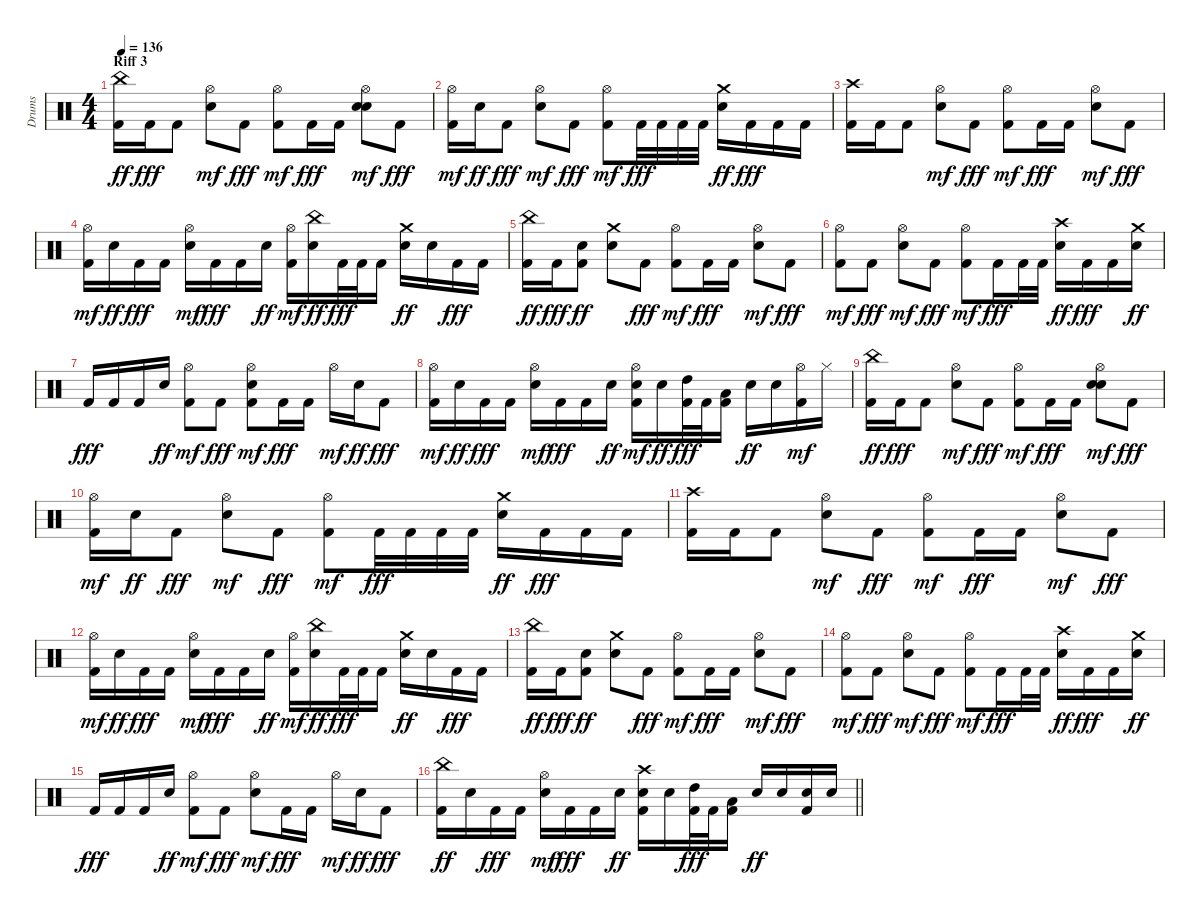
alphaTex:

\track ("Drums" "Drums") {instrument percussion}
\staff {score}
\articulation defaults
\ts (4 4)
\section ("" "Riff 3")
\tempo 136
\clef neutral
\ks c
("Kick (hit) 2" "China (hit)").16{dy ff} "Kick (hit) 2".16{dy fff} "Kick (hit) 2".8 ("Snare (hit) 2" "Hi-Hat (open)").8{dy mf} "Kick (hit) 2".8{dy fff} ("Kick (hit) 2" "Hi-Hat (open)").8{dy mf} "Kick (hit) 2".16{dy fff} "Kick (hit) 2".16 ("Snare (hit) 2" "Snare (hit) 2" "Hi-Hat (open)").8{dy mf} "Kick (hit) 2".8{dy fff} |
("Kick (hit) 2" "Hi-Hat (open)").16{dy mf} "Snare (hit) 2".16{dy ff} "Kick (hit) 2".8{dy fff} ("Snare (hit) 2" "Hi-Hat (open)").8{dy mf} "Kick (hit) 2".8{dy fff} ("Kick (hit) 2" "Hi-Hat (open)").8{dy mf} "Kick (hit) 2".32{dy fff} "Kick (hit) 2".32 "Kick (hit) 2".32 "Kick (hit) 2".32 ("Snare (hit) 2" "Crash medium (hit)").16{dy ff} "Kick (hit) 2".16{dy fff} "Kick (hit) 2".16 "Kick (hit) 2".16 |
("Kick (hit) 2" "Crash high (hit)").16 "Kick (hit) 2".16 "Kick (hit) 2".8 ("Snare (hit) 2" "Hi-Hat (open)").8{dy mf} "Kick (hit) 2".8{dy fff} ("Kick (hit) 2" "Hi-Hat (open)").8{dy mf} "Kick (hit) 2".16{dy fff} "Kick (hit) 2".16 ("Snare (hit) 2" "Hi-Hat (open)").8{dy mf} "Kick (hit) 2".8{dy fff} |
("Kick (hit) 2" "Hi-Hat (open)").16{dy mf} "Snare (hit) 2".16{dy ff} "Kick (hit) 2".16{dy fff} "Kick (hit) 2".16 ("Snare (hit) 2" "Hi-Hat (open)").16{dy mf} "Kick (hit) 2".16{dy fff} "Kick (hit) 2".16 "Snare (hit) 2".16{dy ff} ("Kick (hit) 2" "Hi-Hat (open)").16{dy mf} ("Snare (hit) 2" "China (hit)").16{dy ff} "Kick (hit) 2".32{dy fff} "Kick (hit) 2".32 "Kick (hit) 2".16 ("Snare (hit) 2" "Crash medium (hit)").16{dy ff} "Snare (hit) 2".16 "Kick (hit) 2".16{dy fff} "Kick (hit) 2".16 |
("Kick (hit) 2" "China (hit)").16{dy ff} "Kick (hit) 2".16{dy fff} ("Kick (hit) 2" "Snare (hit) 2").8{dy ff} ("Snare (hit) 2" "Crash medium (hit)").8 "Kick (hit) 2".8{dy fff} ("Kick (hit) 2" "Hi-Hat (open)").8{dy mf} "Kick (hit) 2".16{dy fff} "Kick (hit) 2".16 ("Snare (hit) 2" "Hi-Hat (open)").8{dy mf} "Kick (hit) 2".8{dy fff} |
("Kick (hit) 2" "Hi-Hat (open)").8{dy mf} "Kick (hit) 2".8{dy fff} ("Snare (hit) 2" "Hi-Hat (open)").8{dy mf} "Kick (hit) 2".8{dy fff} ("Kick (hit) 2" "Hi-Hat (open)").8{dy mf} "Kick (hit) 2".16{dy fff} "Kick (hit) 2".32 "Kick (hit) 2".32 ("Snare (hit) 2" "Crash high (hit)").16{dy ff} "Kick (hit) 2".16{dy fff} "Kick (hit) 2".16 ("Snare (hit) 2" "Crash medium (hit)").16{dy ff} |
"Kick (hit) 2".16{dy fff} "Kick (hit) 2".16 "Kick (hit) 2".16 "Snare (hit) 2".16{dy ff} ("Kick (hit) 2" "Hi-Hat (open)").8{dy mf} "Kick (hit) 2".8{dy fff} ("Kick (hit) 2" "Snare (hit) 2" "Hi-Hat (open)").8{dy mf} "Kick (hit) 2".16{dy fff} "Kick (hit) 2".16 "Hi-Hat (open)".16{dy mf} "Snare (hit) 2".16{dy ff} "Kick (hit) 2".8{dy fff} |
("Kick (hit) 2" "Hi-Hat (open)").16{dy mf} "Snare (hit) 2".16{dy ff} "Kick (hit) 2".16{dy fff} "Kick (hit) 2".16 ("Snare (hit) 2" "Hi-Hat (open)").16{dy mf} "Kick (hit) 2".16{dy fff} "Kick (hit) 2".16 "Snare (hit) 2".16{dy ff} ("Kick (hit) 2" "Snare (hit) 2" "Hi-Hat (open)").16{dy mf} "Snare (hit) 2".16{dy ff} ("Kick (hit) 2" "High Tom (hit)").32{dy fff} "Kick (hit) 2".32 ("Kick (hit) 2" "Low Tom (hit)").16 "Snare (hit) 2".16{dy ff} "Snare (hit) 2".16 ("Kick (hit) 2" "Hi-Hat (open)").16{dy mf} "Hi-Hat (closed)".16 |
("Kick (hit) 2" "China (hit)").16{dy ff} "Kick (hit) 2".16{dy fff} "Kick (hit) 2".8 ("Snare (hit) 2" "Hi-Hat (open)").8{dy mf} "Kick (hit) 2".8{dy fff} ("Kick (hit) 2" "Hi-Hat (open)").8{dy mf} "Kick (hit) 2".16{dy fff} "Kick (hit) 2".16 ("Snare (hit) 2" "Snare (hit) 2" "Hi-Hat (open)").8{dy mf} "Kick (hit) 2".8{dy fff} |
("Kick (hit) 2" "Hi-Hat (open)").16{dy mf} "Snare (hit) 2".16{dy ff} "Kick (hit) 2".8{dy fff} ("Snare (hit) 2" "Hi-Hat (open)").8{dy mf} "Kick (hit) 2".8{dy fff} ("Kick (hit) 2" "Hi-Hat (open)").8{dy mf} "Kick (hit) 2".32{dy fff} "Kick (hit) 2".32 "Kick (hit) 2".32 "Kick (hit) 2".32 ("Snare (hit) 2" "Crash medium (hit)").16{dy ff} "Kick (hit) 2".16{dy fff} "Kick (hit) 2".16 "Kick (hit) 2".16 |
("Kick (hit) 2" "Crash high (hit)").16 "Kick (hit) 2".16 "Kick (hit) 2".8 ("Snare (hit) 2" "Hi-Hat (open)").8{dy mf} "Kick (hit) 2".8{dy fff} ("Kick (hit) 2" "Hi-Hat (open)").8{dy mf} "Kick (hit) 2".16{dy fff} "Kick (hit) 2".16 ("Snare (hit) 2" "Hi-Hat (open)").8{dy mf} "Kick (hit) 2".8{dy fff} |
("Kick (hit) 2" "Hi-Hat (open)").16{dy mf} "Snare (hit) 2".16{dy ff} "Kick (hit) 2".16{dy fff} "Kick (hit) 2".16 ("Snare (hit) 2" "Hi-Hat (open)").16{dy mf} "Kick (hit) 2".16{dy fff} "Kick (hit) 2".16 "Snare (hit) 2".16{dy ff} ("Kick (hit) 2" "Hi-Hat (open)").16{dy mf} ("Snare (hit) 2" "China (hit)").16{dy ff} "Kick (hit) 2".32{dy fff} "Kick (hit) 2".32 "Kick (hit) 2".16 ("Snare (hit) 2" "Crash medium (hit)").16{dy ff} "Snare (hit) 2".16 "Kick (hit) 2".16{dy fff} "Kick (hit) 2".16 |
("Kick (hit) 2" "China (hit)").16{dy ff} "Kick (hit) 2".16{dy fff} ("Kick (hit) 2" "Snare (hit) 2").8{dy ff} ("Snare (hit) 2" "Crash medium (hit)").8 "Kick (hit) 2".8{dy fff} ("Kick (hit) 2" "Hi-Hat (open)").8{dy mf} "Kick (hit) 2".16{dy fff} "Kick (hit) 2".16 ("Snare (hit) 2" "Hi-Hat (open)").8{dy mf} "Kick (hit) 2".8{dy fff} |
("Kick (hit) 2" "Hi-Hat (open)").8{dy mf} "Kick (hit) 2".8{dy fff} ("Snare (hit) 2" "Hi-Hat (open)").8{dy mf} "Kick (hit) 2".8{dy fff} ("Kick (hit) 2" "Hi-Hat (open)").8{dy mf} "Kick (hit) 2".16{dy fff} "Kick (hit) 2".32 "Kick (hit) 2".32 ("Snare (hit) 2" "Crash high (hit)").16{dy ff} "Kick (hit) 2".16{dy fff} "Kick (hit) 2".16 ("Snare (hit) 2" "Crash medium (hit)").16{dy ff} |
"Kick (hit) 2".16{dy fff} "Kick (hit) 2".16 "Kick (hit) 2".16 "Snare (hit) 2".16{dy ff} ("Kick (hit) 2" "Hi-Hat (open)").8{dy mf} "Kick (hit) 2".8{dy fff} ("Snare (hit) 2" "Hi-Hat (open)").8{dy mf} "Kick (hit) 2".16{dy fff} "Kick (hit) 2".16 "Hi-Hat (open)".16{dy mf} "Snare (hit) 2".16{dy ff} "Kick (hit) 2".8{dy fff} |
\barLineRight lightlight
("Kick (hit) 2" "China (hit)").16{dy ff} "Snare (hit) 2".16 "Kick (hit) 2".16{dy fff} "Kick (hit) 2".16 ("Snare (hit) 2" "Hi-Hat (open)").16{dy mf} "Kick (hit) 2".16{dy fff} "Kick (hit) 2".16 "Snare (hit) 2".16{dy ff} ("Kick (hit) 2" "Snare (hit) 2" "Crash high (hit)").16 "Snare (hit) 2".16 ("Kick (hit) 2" "High Tom (hit)").32{dy fff} "Kick (hit) 2".32 ("Kick (hit) 2" "Low Tom (hit)").16 "Snare (hit) 2".16{dy ff} "Snare (hit) 2".16 ("Kick (hit) 2" "Snare (hit) 2").16 "Snare (hit) 2".16
